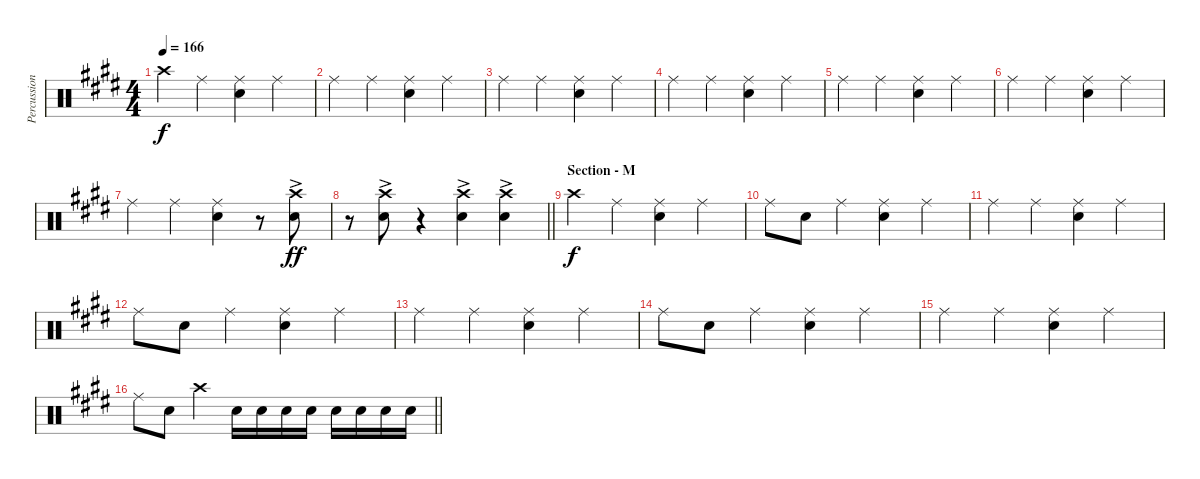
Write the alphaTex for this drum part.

\track ("Percussion - Other" "Percussion") {instrument percussion}
\staff {score}
\articulation defaults
\ts (4 4)
\tempo 166
\clef neutral
\ks e "Crash high (hit)".4{dy f} "Ride (middle)".4
("Ride (middle)" "Snare (hit) 2").4 "Ride (middle)".4 |
"Ride (middle)".4 "Ride (middle)".4 ("Ride (middle)" "Snare (hit) 2").4 "Ride (middle)".4 |
"Ride (middle)".4 "Ride (middle)".4 ("Ride (middle)" "Snare (hit) 2").4 "Ride (middle)".4 |
"Ride (middle)".4 "Ride (middle)".4 ("Ride (middle)" "Snare (hit) 2").4 "Ride (middle)".4 |
"Ride (middle)".4 "Ride (middle)".4 ("Ride (middle)" "Snare (hit) 2").4 "Ride (middle)".4 |
"Ride (middle)".4 "Ride (middle)".4 ("Ride (middle)" "Snare (hit) 2").4 "Ride (middle)".4 |
"Ride (middle)".4 "Ride (middle)".4 ("Ride (middle)" "Snare (hit) 2").4 r.8 ("Crash high (hit)"{ac} "Snare (hit) 2").8{dy ff} |
\barLineRight lightlight
r.8 ("Crash high (hit)"{ac} "Snare (hit) 2").8 r.4 ("Crash high (hit)"{ac} "Snare (hit) 2").4 ("Crash high (hit)"{ac} "Snare (hit) 2").4 |
\section ("" "Section - M")
"Crash high (hit)".4{dy f} "Ride (middle)".4 ("Ride (middle)" "Snare (hit) 2").4 "Ride (middle)".4 |
"Ride (middle)".8 "Snare (hit) 2".8 "Ride (middle)".4 ("Ride (middle)" "Snare (hit) 2").4 "Ride (middle)".4 |
"Ride (middle)".4 "Ride (middle)".4 ("Ride (middle)" "Snare (hit) 2").4 "Ride (middle)".4 |
"Ride (middle)".8 "Snare (hit) 2".8 "Ride (middle)".4 ("Ride (middle)" "Snare (hit) 2").4 "Ride (middle)".4 |
"Ride (middle)".4 "Ride (middle)".4 ("Ride (middle)" "Snare (hit) 2").4 "Ride (middle)".4 |
"Ride (middle)".8 "Snare (hit) 2".8 "Ride (middle)".4 ("Ride (middle)" "Snare (hit) 2").4 "Ride (middle)".4 |
"Ride (middle)".4 "Ride (middle)".4 ("Ride (middle)" "Snare (hit) 2").4 "Ride (middle)".4 |
\barLineRight lightlight "Ride (middle)".8 "Snare (hit) 2".8 "Crash high (hit)".4 "Snare (hit) 2".16 "Snare (hit) 2".16 "Snare (hit) 2".16 "Snare (hit) 2".16 "Snare (hit) 2".16 "Snare (hit) 2".16 "Snare (hit) 2".16 "Snare (hit) 2".16
